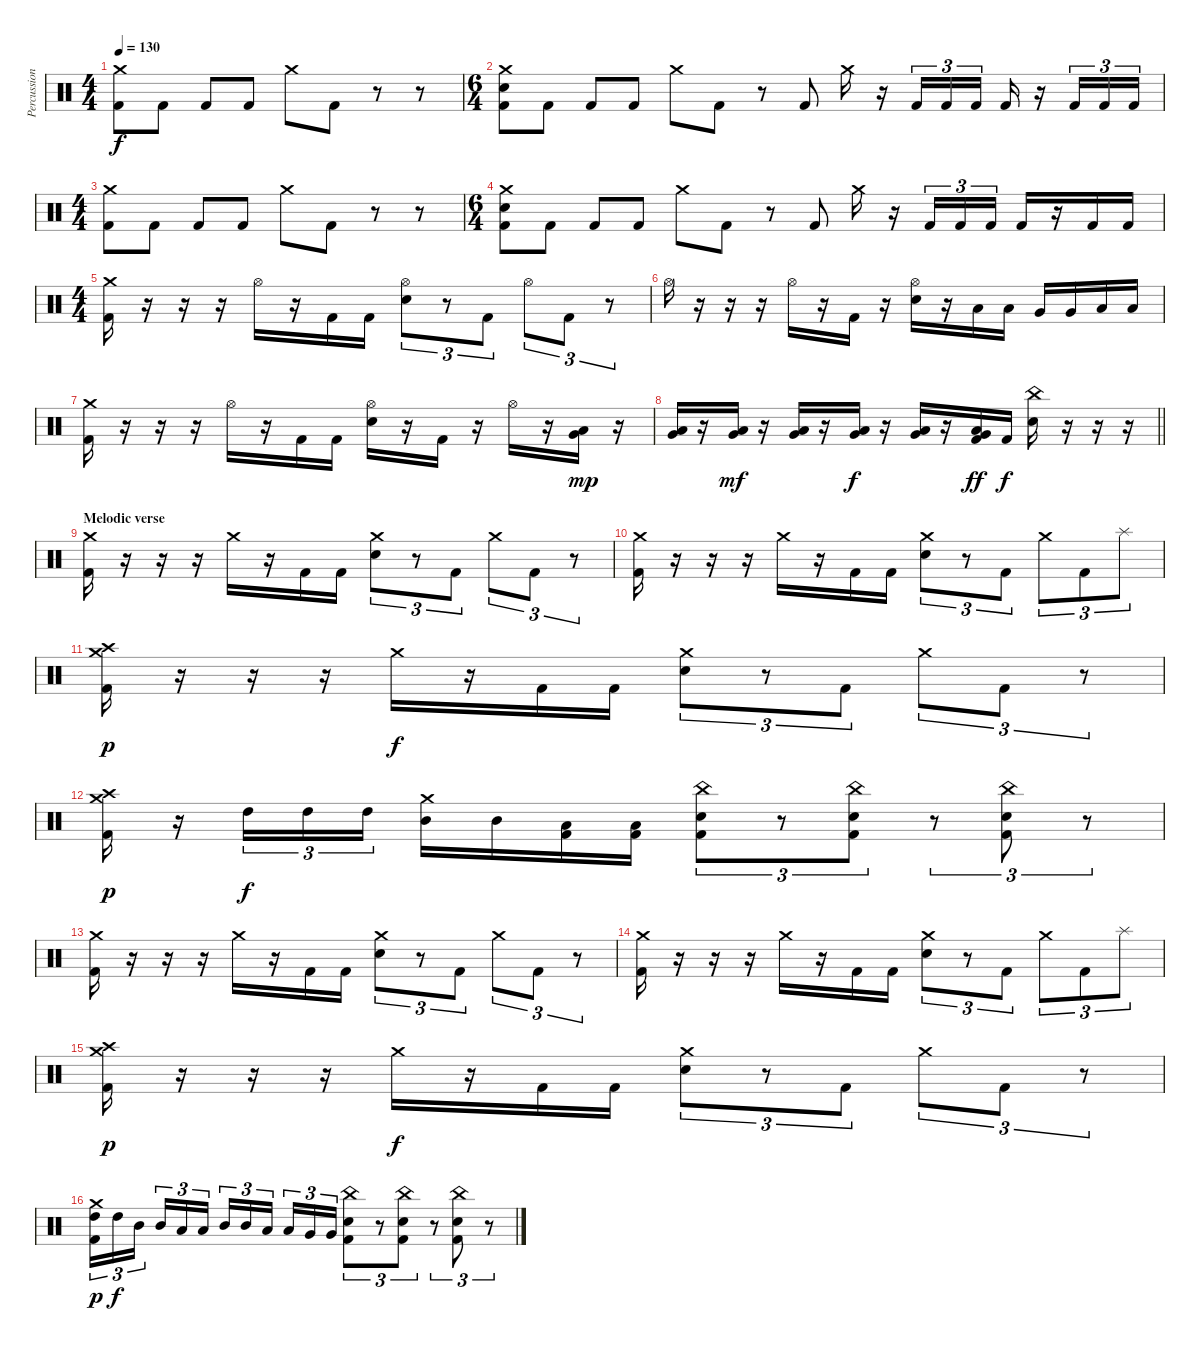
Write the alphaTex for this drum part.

\track ("Percussion" "Percussion") {instrument percussion}
\staff {score}
\articulation defaults
\ts (4 4)
\tempo 130
\clef neutral
\ks c
("Crash medium (hit)" "Kick (hit) 2").8{dy f} "Kick (hit) 2".8 "Kick (hit) 2".8 "Kick (hit) 2".8 "Crash medium (hit)".8 "Kick (hit) 2".8 r.8 r.8 |
\ts (6 4)
("Crash medium (hit)" "Electric Snare (hit)" "Kick (hit) 2").8 "Kick (hit) 2".8 "Kick (hit) 2".8 "Kick (hit) 2".8 "Crash medium (hit)".8 "Kick (hit) 2".8 r.8 "Kick (hit) 2".8 "Crash medium (hit)".16 r.16 "Kick (hit) 2".16{tu (3 2)} "Kick (hit) 2".16{tu (3 2)} "Kick (hit) 2".16{tu (3 2)} "Kick (hit) 2".16 r.16 "Kick (hit) 2".16{tu (3 2)} "Kick (hit) 2".16{tu (3 2)} "Kick (hit) 2".16{tu (3 2)} |
\ts (4 4)
("Crash medium (hit)" "Kick (hit) 2").8 "Kick (hit) 2".8 "Kick (hit) 2".8 "Kick (hit) 2".8 "Crash medium (hit)".8 "Kick (hit) 2".8 r.8 r.8 |
\ts (6 4)
("Crash medium (hit)" "Electric Snare (hit)" "Kick (hit) 2").8 "Kick (hit) 2".8 "Kick (hit) 2".8 "Kick (hit) 2".8 "Crash medium (hit)".8 "Kick (hit) 2".8 r.8 "Kick (hit) 2".8 "Crash medium (hit)".16 r.16 "Kick (hit) 2".16{tu (3 2)} "Kick (hit) 2".16{tu (3 2)} "Kick (hit) 2".16{tu (3 2)} "Kick (hit) 2".16 r.16 "Kick (hit) 2".16 "Kick (hit) 2".16 |
\ts (4 4)
("Crash medium (hit)" "Kick (hit) 2").16 r.16 r.16 r.16 "Hi-Hat (open)".16 r.16 "Kick (hit) 2".16 "Kick (hit) 2".16 ("Hi-Hat (open)" "Electric Snare (hit)").8{tu (3 2)} r.8{tu (3 2)} "Kick (hit) 2".8{tu (3 2)} "Hi-Hat (open)".8{tu (3 2)} "Kick (hit) 2".8{tu (3 2)} r.8{tu (3 2)} |
"Hi-Hat (open)".16 r.16 r.16 r.16 "Hi-Hat (open)".16 r.16 "Kick (hit) 2".16 r.16 ("Hi-Hat (open)" "Electric Snare (hit)").16 r.16 "Low Tom (hit)".16 "Low Tom (hit)".16 "Very Low Tom (hit)".16 "Very Low Tom (hit)".16 "Low Floor Tom (hit)".16 "Low Floor Tom (hit)".16 |
("Crash medium (hit)" "Kick (hit) 2").16 r.16 r.16 r.16 "Hi-Hat (open)".16 r.16 "Kick (hit) 2".16 "Kick (hit) 2".16 ("Hi-Hat (open)" "Electric Snare (hit)").16 r.16 "Kick (hit) 2".16 r.16 "Hi-Hat (open)".16 r.16 ("Very Low Tom (hit)" "Low Floor Tom (hit)").16{dy mp} r.16 |
\barLineRight lightlight
("Very Low Tom (hit)" "Low Floor Tom (hit)").16 r.16 ("Very Low Tom (hit)" "Low Floor Tom (hit)").16{dy mf} r.16 ("Very Low Tom (hit)" "Low Floor Tom (hit)").16 r.16 ("Very Low Tom (hit)" "Low Floor Tom (hit)").16{dy f} r.16 ("Very Low Tom (hit)" "Low Floor Tom (hit)").16 r.16 ("Very Low Tom (hit)" "Low Floor Tom (hit)" "Kick (hit) 2").16{dy ff} "Kick (hit) 2".16{dy f} ("China (hit)" "Electric Snare (hit)").16 r.16 r.16 r.16 |
\section ("" "Melodic verse")
("Crash medium (hit)" "Kick (hit) 2").16 r.16 r.16 r.16 "Crash medium (hit)".16 r.16 "Kick (hit) 2".16 "Kick (hit) 2".16 ("Crash medium (hit)" "Electric Snare (hit)").8{tu (3 2)} r.8{tu (3 2)} "Kick (hit) 2".8{tu (3 2)} "Crash medium (hit)".8{tu (3 2)} "Kick (hit) 2".8{tu (3 2)} r.8{tu (3 2)} |
("Crash medium (hit)" "Kick (hit) 2").16 r.16 r.16 r.16 "Crash medium (hit)".16 r.16 "Kick (hit) 2".16 "Kick (hit) 2".16 ("Crash medium (hit)" "Electric Snare (hit)").8{tu (3 2)} r.8{tu (3 2)} "Kick (hit) 2".8{tu (3 2)} "Crash medium (hit)".8{tu (3 2)} "Kick (hit) 2".8{tu (3 2)} "Splash (hit)".8{tu (3 2)} |
("Crash medium (hit)" "Crash high (hit)" "Kick (hit) 2").16{dy p} r.16 r.16 r.16 "Crash medium (hit)".16{dy f} r.16 "Kick (hit) 2".16 "Kick (hit) 2".16 ("Crash medium (hit)" "Electric Snare (hit)").8{tu (3 2)} r.8{tu (3 2)} "Kick (hit) 2".8{tu (3 2)} "Crash medium (hit)".8{tu (3 2)} "Kick (hit) 2".8{tu (3 2)} r.8{tu (3 2)} |
("Crash medium (hit)" "Crash high (hit)" "Kick (hit) 2").16{dy p} r.16 "High Tom (hit)".16{tu (3 2) dy f} "High Tom (hit)".16{tu (3 2)} "High Tom (hit)".16{tu (3 2)} ("Crash medium (hit)" "Mid Tom (hit)").16 "Mid Tom (hit)".16 ("Low Tom (hit)" "Kick (hit) 2").16 ("Low Tom (hit)" "Kick (hit) 2").16 ("China (hit)" "Electric Snare (hit)" "Kick (hit) 2").8{tu (3 2)} r.8{tu (3 2)} ("China (hit)" "Electric Snare (hit)" "Kick (hit) 2").8{tu (3 2)} r.8{tu (3 2)} ("China (hit)" "Electric Snare (hit)" "Kick (hit) 2").8{tu (3 2)} r.8{tu (3 2)} |
("Crash medium (hit)" "Kick (hit) 2").16 r.16 r.16 r.16 "Crash medium (hit)".16 r.16 "Kick (hit) 2".16 "Kick (hit) 2".16 ("Crash medium (hit)" "Electric Snare (hit)").8{tu (3 2)} r.8{tu (3 2)} "Kick (hit) 2".8{tu (3 2)} "Crash medium (hit)".8{tu (3 2)} "Kick (hit) 2".8{tu (3 2)} r.8{tu (3 2)} |
("Crash medium (hit)" "Kick (hit) 2").16 r.16 r.16 r.16 "Crash medium (hit)".16 r.16 "Kick (hit) 2".16 "Kick (hit) 2".16 ("Crash medium (hit)" "Electric Snare (hit)").8{tu (3 2)} r.8{tu (3 2)} "Kick (hit) 2".8{tu (3 2)} "Crash medium (hit)".8{tu (3 2)} "Kick (hit) 2".8{tu (3 2)} "Splash (hit)".8{tu (3 2)} |
("Crash medium (hit)" "Crash high (hit)" "Kick (hit) 2").16{dy p} r.16 r.16 r.16 "Crash medium (hit)".16{dy f} r.16 "Kick (hit) 2".16 "Kick (hit) 2".16 ("Crash medium (hit)" "Electric Snare (hit)").8{tu (3 2)} r.8{tu (3 2)} "Kick (hit) 2".8{tu (3 2)} "Crash medium (hit)".8{tu (3 2)} "Kick (hit) 2".8{tu (3 2)} r.8{tu (3 2)} |
("Crash medium (hit)" "High Tom (hit)" "Kick (hit) 2").16{tu (3 2) dy p} "High Tom (hit)".16{tu (3 2) dy f} "Mid Tom (hit)".16{tu (3 2)} "Mid Tom (hit)".16{tu (3 2)} "Low Tom (hit)".16{tu (3 2)} "Low Tom (hit)".16{tu (3 2)} "Mid Tom (hit)".16{tu (3 2)} "Mid Tom (hit)".16{tu (3 2)} "Low Tom (hit)".16{tu (3 2)} "Low Tom (hit)".16{tu (3 2)} "Very Low Tom (hit)".16{tu (3 2)} "Very Low Tom (hit)".16{tu (3 2)} ("China (hit)" "Electric Snare (hit)" "Kick (hit) 2").8{tu (3 2)} r.8{tu (3 2)} ("China (hit)" "Electric Snare (hit)" "Kick (hit) 2").8{tu (3 2)} r.8{tu (3 2)} ("China (hit)" "Electric Snare (hit)" "Kick (hit) 2").8{tu (3 2)} r.8{tu (3 2)}
